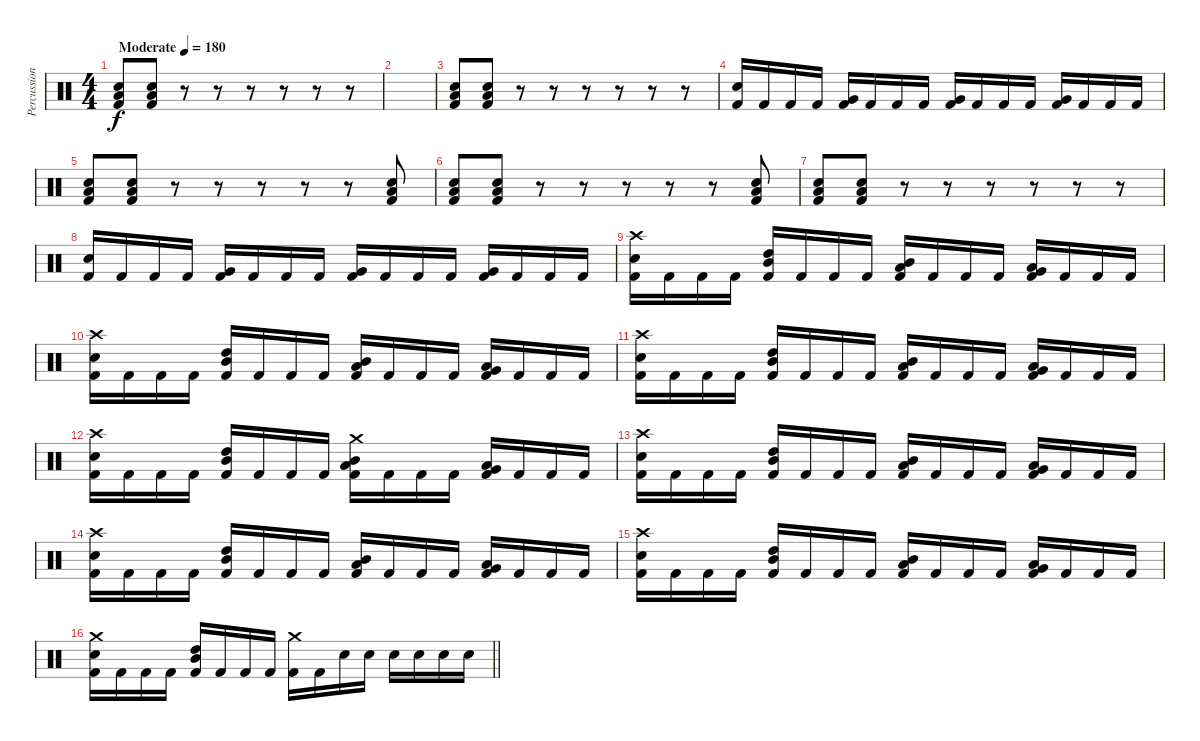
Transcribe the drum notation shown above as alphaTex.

\track ("Percussion" "Percussion") {instrument percussion}
\staff {score}
\articulation defaults
\ts (4 4)
\tempo (180 "Moderate")
\clef neutral
\ks c
("Low Floor Tom (hit)" "Snare (hit) 2" "Kick (hit) 2").8{dy f} ("Low Floor Tom (hit)" "Snare (hit) 2" "Kick (hit) 2").8 r.8 r.8 r.8 r.8 r.8 r.8 |
|
("Low Floor Tom (hit)" "Snare (hit) 2" "Kick (hit) 2").8 ("Low Floor Tom (hit)" "Snare (hit) 2" "Kick (hit) 2").8 r.8 r.8 r.8 r.8 r.8 r.8 |
("Snare (hit) 2" "Kick (hit) 2").16 "Kick (hit) 2".16 "Kick (hit) 2".16 "Kick (hit) 2".16 ("Very Low Tom (hit)" "Kick (hit) 2").16 "Kick (hit) 2".16 "Kick (hit) 2".16 "Kick (hit) 2".16 ("Very Low Tom (hit)" "Kick (hit) 2").16 "Kick (hit) 2".16 "Kick (hit) 2".16 "Kick (hit) 2".16 ("Very Low Tom (hit)" "Kick (hit) 2").16 "Kick (hit) 2".16 "Kick (hit) 2".16 "Kick (hit) 2".16 |
("Low Floor Tom (hit)" "Snare (hit) 2" "Kick (hit) 2").8 ("Low Floor Tom (hit)" "Snare (hit) 2" "Kick (hit) 2").8 r.8 r.8 r.8 r.8 r.8 ("Low Floor Tom (hit)" "Snare (hit) 2" "Kick (hit) 2").8 |
("Low Floor Tom (hit)" "Snare (hit) 2" "Kick (hit) 2").8 ("Low Floor Tom (hit)" "Snare (hit) 2" "Kick (hit) 2").8 r.8 r.8 r.8 r.8 r.8 ("Low Floor Tom (hit)" "Snare (hit) 2" "Kick (hit) 2").8 |
("Low Floor Tom (hit)" "Snare (hit) 2" "Kick (hit) 2").8 ("Low Floor Tom (hit)" "Snare (hit) 2" "Kick (hit) 2").8 r.8 r.8 r.8 r.8 r.8 r.8 |
("Snare (hit) 2" "Kick (hit) 2").16 "Kick (hit) 2".16 "Kick (hit) 2".16 "Kick (hit) 2".16 ("Very Low Tom (hit)" "Kick (hit) 2").16 "Kick (hit) 2".16 "Kick (hit) 2".16 "Kick (hit) 2".16 ("Very Low Tom (hit)" "Kick (hit) 2").16 "Kick (hit) 2".16 "Kick (hit) 2".16 "Kick (hit) 2".16 ("Very Low Tom (hit)" "Kick (hit) 2").16 "Kick (hit) 2".16 "Kick (hit) 2".16 "Kick (hit) 2".16 |
("Crash high (hit)" "Snare (hit) 2" "Kick (hit) 2").16 "Kick (hit) 2".16 "Kick (hit) 2".16 "Kick (hit) 2".16 ("High Tom (hit)" "Mid Tom (hit)" "Kick (hit) 2").16 "Kick (hit) 2".16 "Kick (hit) 2".16 "Kick (hit) 2".16 ("Mid Tom (hit)" "Low Tom (hit)" "Kick (hit) 2").16 "Kick (hit) 2".16 "Kick (hit) 2".16 "Kick (hit) 2".16 ("Low Tom (hit)" "Very Low Tom (hit)" "Kick (hit) 2").16 "Kick (hit) 2".16 "Kick (hit) 2".16 "Kick (hit) 2".16 |
("Crash high (hit)" "Snare (hit) 2" "Kick (hit) 2").16 "Kick (hit) 2".16 "Kick (hit) 2".16 "Kick (hit) 2".16 ("High Tom (hit)" "Mid Tom (hit)" "Kick (hit) 2").16 "Kick (hit) 2".16 "Kick (hit) 2".16 "Kick (hit) 2".16 ("Mid Tom (hit)" "Low Tom (hit)" "Kick (hit) 2").16 "Kick (hit) 2".16 "Kick (hit) 2".16 "Kick (hit) 2".16 ("Low Tom (hit)" "Very Low Tom (hit)" "Kick (hit) 2").16 "Kick (hit) 2".16 "Kick (hit) 2".16 "Kick (hit) 2".16 |
("Crash high (hit)" "Snare (hit) 2" "Kick (hit) 2").16 "Kick (hit) 2".16 "Kick (hit) 2".16 "Kick (hit) 2".16 ("High Tom (hit)" "Mid Tom (hit)" "Kick (hit) 2").16 "Kick (hit) 2".16 "Kick (hit) 2".16 "Kick (hit) 2".16 ("Mid Tom (hit)" "Low Tom (hit)" "Kick (hit) 2").16 "Kick (hit) 2".16 "Kick (hit) 2".16 "Kick (hit) 2".16 ("Low Tom (hit)" "Very Low Tom (hit)" "Kick (hit) 2").16 "Kick (hit) 2".16 "Kick (hit) 2".16 "Kick (hit) 2".16 |
("Crash high (hit)" "Snare (hit) 2" "Kick (hit) 2").16 "Kick (hit) 2".16 "Kick (hit) 2".16 "Kick (hit) 2".16 ("High Tom (hit)" "Mid Tom (hit)" "Kick (hit) 2").16 "Kick (hit) 2".16 "Kick (hit) 2".16 "Kick (hit) 2".16 ("Crash medium (hit)" "Mid Tom (hit)" "Low Tom (hit)" "Kick (hit) 2").16 "Kick (hit) 2".16 "Kick (hit) 2".16 "Kick (hit) 2".16 ("Low Tom (hit)" "Very Low Tom (hit)" "Kick (hit) 2").16 "Kick (hit) 2".16 "Kick (hit) 2".16 "Kick (hit) 2".16 |
("Crash high (hit)" "Snare (hit) 2" "Kick (hit) 2").16 "Kick (hit) 2".16 "Kick (hit) 2".16 "Kick (hit) 2".16 ("High Tom (hit)" "Mid Tom (hit)" "Kick (hit) 2").16 "Kick (hit) 2".16 "Kick (hit) 2".16 "Kick (hit) 2".16 ("Mid Tom (hit)" "Low Tom (hit)" "Kick (hit) 2").16 "Kick (hit) 2".16 "Kick (hit) 2".16 "Kick (hit) 2".16 ("Low Tom (hit)" "Very Low Tom (hit)" "Kick (hit) 2").16 "Kick (hit) 2".16 "Kick (hit) 2".16 "Kick (hit) 2".16 |
("Crash high (hit)" "Snare (hit) 2" "Kick (hit) 2").16 "Kick (hit) 2".16 "Kick (hit) 2".16 "Kick (hit) 2".16 ("High Tom (hit)" "Mid Tom (hit)" "Kick (hit) 2").16 "Kick (hit) 2".16 "Kick (hit) 2".16 "Kick (hit) 2".16 ("Mid Tom (hit)" "Low Tom (hit)" "Kick (hit) 2").16 "Kick (hit) 2".16 "Kick (hit) 2".16 "Kick (hit) 2".16 ("Low Tom (hit)" "Very Low Tom (hit)" "Kick (hit) 2").16 "Kick (hit) 2".16 "Kick (hit) 2".16 "Kick (hit) 2".16 |
("Crash high (hit)" "Snare (hit) 2" "Kick (hit) 2").16 "Kick (hit) 2".16 "Kick (hit) 2".16 "Kick (hit) 2".16 ("High Tom (hit)" "Mid Tom (hit)" "Kick (hit) 2").16 "Kick (hit) 2".16 "Kick (hit) 2".16 "Kick (hit) 2".16 ("Mid Tom (hit)" "Low Tom (hit)" "Kick (hit) 2").16 "Kick (hit) 2".16 "Kick (hit) 2".16 "Kick (hit) 2".16 ("Low Tom (hit)" "Very Low Tom (hit)" "Kick (hit) 2").16 "Kick (hit) 2".16 "Kick (hit) 2".16 "Kick (hit) 2".16 |
\barLineRight lightlight
("Crash medium (hit)" "Snare (hit) 2" "Kick (hit) 2").16 "Kick (hit) 2".16 "Kick (hit) 2".16 "Kick (hit) 2".16 ("High Tom (hit)" "Mid Tom (hit)" "Kick (hit) 2").16 "Kick (hit) 2".16 "Kick (hit) 2".16 "Kick (hit) 2".16 ("Crash medium (hit)" "Kick (hit) 2").16 "Kick (hit) 2".16 "Snare (hit) 2".16 "Snare (hit) 2".16 "Snare (hit) 2".16 "Snare (hit) 2".16 "Snare (hit) 2".16 "Snare (hit) 2".16
